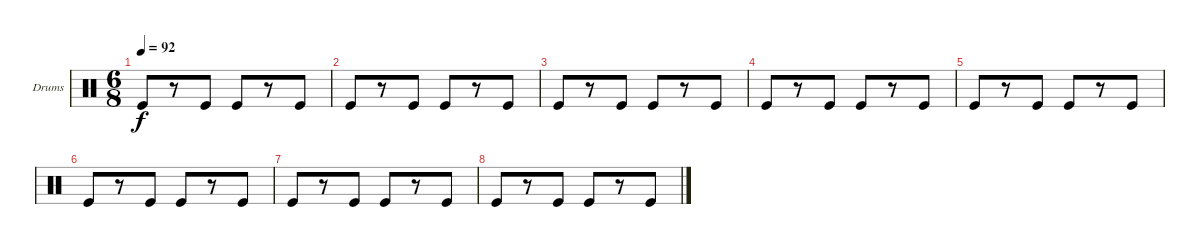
\defaultSystemsLayout 4
\bracketExtendMode groupsimilarinstruments
\firstSystemTrackNameOrientation horizontal
\otherSystemsTrackNameOrientation horizontal
\track ("Drumkit" "Drums") {instrument percussion}
\staff {score}
\articulation defaults
\ts (6 8)
\tempo 92
\clef neutral
\ks c "Kick (hit)".8{dy f}
r.8 "Kick (hit)".8 "Kick (hit)".8 r.8 "Kick (hit)".8 |
"Kick (hit)".8 r.8 "Kick (hit)".8 "Kick (hit)".8 r.8 "Kick (hit)".8 |
"Kick (hit)".8 r.8 "Kick (hit)".8 "Kick (hit)".8 r.8 "Kick (hit)".8 |
"Kick (hit)".8 r.8 "Kick (hit)".8 "Kick (hit)".8 r.8 "Kick (hit)".8 |
"Kick (hit)".8 r.8 "Kick (hit)".8 "Kick (hit)".8 r.8 "Kick (hit)".8 |
"Kick (hit)".8 r.8 "Kick (hit)".8 "Kick (hit)".8 r.8 "Kick (hit)".8 |
"Kick (hit)".8 r.8 "Kick (hit)".8 "Kick (hit)".8 r.8 "Kick (hit)".8 |
"Kick (hit)".8 r.8 "Kick (hit)".8 "Kick (hit)".8 r.8 "Kick (hit)".8
